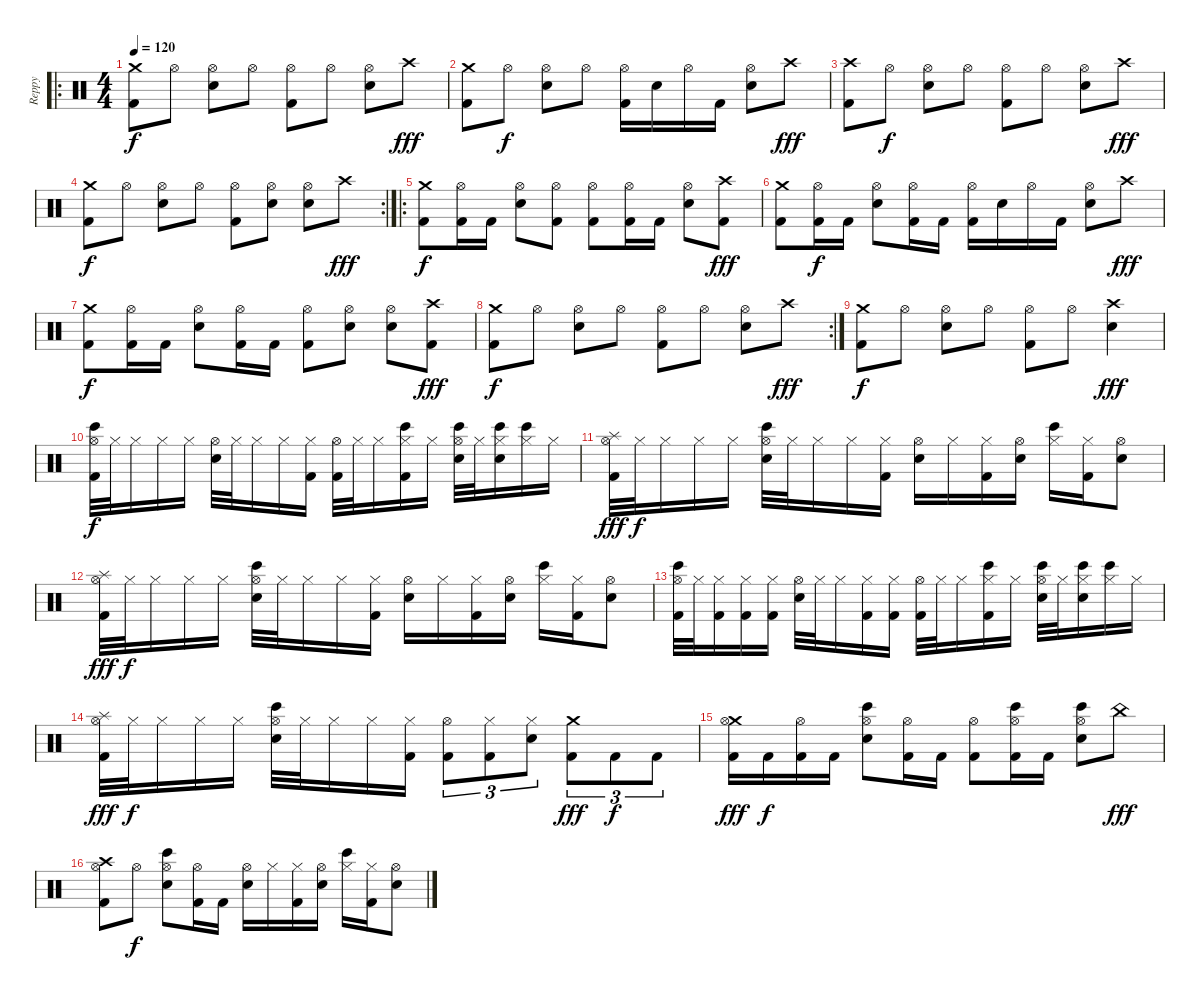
\track ("Reppy" "Reppy") {instrument percussion}
\staff {score}
\articulation defaults
\ro
\ts (4 4)
\tempo 120
\clef neutral
\ks c
("Crash medium (hit)" "Kick (hit) 2").8{dy f} "Hi-Hat (open)".8 ("Hi-Hat (open)" "Electric Snare (hit)").8 "Hi-Hat (open)".8 ("Hi-Hat (open)" "Kick (hit) 2").8 "Hi-Hat (open)".8 ("Hi-Hat (open)" "Electric Snare (hit)").8 "Crash high (hit)".8{dy fff} |
("Crash medium (hit)" "Kick (hit) 2").8 "Hi-Hat (open)".8{dy f} ("Hi-Hat (open)" "Electric Snare (hit)").8 "Hi-Hat (open)".8 ("Hi-Hat (open)" "Kick (hit) 2").16 "Electric Snare (hit)".16 "Hi-Hat (open)".16 "Kick (hit) 2".16 ("Hi-Hat (open)" "Electric Snare (hit)").8 "Crash high (hit)".8{dy fff} |
("Crash high (hit)" "Kick (hit) 2").8 "Hi-Hat (open)".8{dy f} ("Hi-Hat (open)" "Electric Snare (hit)").8 "Hi-Hat (open)".8 ("Hi-Hat (open)" "Kick (hit) 2").8 "Hi-Hat (open)".8 ("Hi-Hat (open)" "Electric Snare (hit)").8 "Crash high (hit)".8{dy fff} |
\rc 2
("Crash medium (hit)" "Kick (hit) 2").8{dy f} "Hi-Hat (open)".8 ("Hi-Hat (open)" "Electric Snare (hit)").8 "Hi-Hat (open)".8 ("Hi-Hat (open)" "Kick (hit) 2").8 ("Hi-Hat (open)" "Electric Snare (hit)").8 ("Hi-Hat (open)" "Electric Snare (hit)").8 "Crash high (hit)".8{dy fff} |
\ro
("Crash medium (hit)" "Kick (hit) 2").8{dy f} ("Hi-Hat (open)" "Kick (hit) 2").16 "Kick (hit) 2".16 ("Hi-Hat (open)" "Electric Snare (hit)").8 ("Hi-Hat (open)" "Kick (hit) 2").8 ("Hi-Hat (open)" "Kick (hit) 2").8 ("Hi-Hat (open)" "Kick (hit) 2").16 "Kick (hit) 2".16 ("Hi-Hat (open)" "Electric Snare (hit)").8 ("Crash high (hit)" "Kick (hit) 2").8{dy fff} |
("Crash medium (hit)" "Kick (hit) 2").8 ("Hi-Hat (open)" "Kick (hit) 2").16{dy f} "Kick (hit) 2".16 ("Hi-Hat (open)" "Electric Snare (hit)").8 ("Hi-Hat (open)" "Kick (hit) 2").16 "Kick (hit) 2".16 ("Hi-Hat (open)" "Kick (hit) 2").16 "Electric Snare (hit)".16 "Hi-Hat (open)".16 "Kick (hit) 2".16 ("Hi-Hat (open)" "Electric Snare (hit)").8 "Crash high (hit)".8{dy fff} |
("Crash medium (hit)" "Kick (hit) 2").8{dy f} ("Hi-Hat (open)" "Kick (hit) 2").16 "Kick (hit) 2".16 ("Hi-Hat (open)" "Electric Snare (hit)").8 ("Hi-Hat (open)" "Kick (hit) 2").16 "Kick (hit) 2".16 ("Hi-Hat (open)" "Kick (hit) 2").8 ("Hi-Hat (open)" "Electric Snare (hit)").8 ("Hi-Hat (open)" "Electric Snare (hit)").8 ("Crash high (hit)" "Kick (hit) 2").8{dy fff} |
\rc 2
("Crash medium (hit)" "Kick (hit) 2").8{dy f} "Hi-Hat (open)".8 ("Hi-Hat (open)" "Electric Snare (hit)").8 "Hi-Hat (open)".8 ("Hi-Hat (open)" "Kick (hit) 2").8 "Hi-Hat (open)".8 ("Hi-Hat (open)" "Electric Snare (hit)").8 "Crash high (hit)".8{dy fff} |
("Crash medium (hit)" "Kick (hit) 2").8{dy f} "Hi-Hat (open)".8 ("Hi-Hat (open)" "Electric Snare (hit)").8 "Hi-Hat (open)".8 ("Hi-Hat (open)" "Kick (hit) 2").8 "Hi-Hat (open)".8 ("Crash high (hit)" "Electric Snare (hit)").4{dy fff} |
("Bongo High (hit)" "Hi-Hat (open)" "Kick (hit) 2").32{dy f} "Hi-Hat (closed)".32 "Hi-Hat (closed)".16 "Hi-Hat (closed)".16 "Hi-Hat (closed)".16 ("Hi-Hat (open)" "Electric Snare (hit)").32 "Hi-Hat (closed)".32 "Hi-Hat (closed)".16 "Hi-Hat (closed)".16 ("Hi-Hat (closed)" "Kick (hit) 2").16 ("Hi-Hat (open)" "Kick (hit) 2").32 "Hi-Hat (closed)".32 "Hi-Hat (closed)".16 ("Bongo High (hit)" "Hi-Hat (closed)" "Kick (hit) 2").16 "Hi-Hat (closed)".16 ("Bongo High (hit)" "Hi-Hat (open)" "Electric Snare (hit)").32 "Hi-Hat (closed)".32 ("Bongo High (hit)" "Hi-Hat (closed)" "Electric Snare (hit)").16 ("Bongo High (hit)" "Hi-Hat (closed)").16 "Hi-Hat (closed)".16 |
("Splash (hit)" "Hi-Hat (open)" "Kick (hit) 2").32{dy fff} "Hi-Hat (closed)".32{dy f} "Hi-Hat (closed)".16 "Hi-Hat (closed)".16 "Hi-Hat (closed)".16 ("Bongo High (hit)" "Hi-Hat (open)" "Electric Snare (hit)").32 "Hi-Hat (closed)".32 "Hi-Hat (closed)".16 "Hi-Hat (closed)".16 ("Hi-Hat (closed)" "Kick (hit) 2").16 ("Hi-Hat (open)" "Electric Snare (hit)").16 "Hi-Hat (closed)".16 ("Hi-Hat (closed)" "Kick (hit) 2").16 ("Hi-Hat (open)" "Electric Snare (hit)").16 ("Bongo High (hit)" "Hi-Hat (closed)").16 ("Hi-Hat (closed)" "Kick (hit) 2").16 ("Hi-Hat (open)" "Electric Snare (hit)").8 |
("Splash (hit)" "Hi-Hat (open)" "Kick (hit) 2").32{dy fff} "Hi-Hat (closed)".32{dy f} "Hi-Hat (closed)".16 "Hi-Hat (closed)".16 "Hi-Hat (closed)".16 ("Bongo High (hit)" "Hi-Hat (open)" "Electric Snare (hit)").32 "Hi-Hat (closed)".32 "Hi-Hat (closed)".16 "Hi-Hat (closed)".16 ("Hi-Hat (closed)" "Kick (hit) 2").16 ("Hi-Hat (open)" "Electric Snare (hit)").16 "Hi-Hat (closed)".16 ("Hi-Hat (closed)" "Kick (hit) 2").16 ("Hi-Hat (open)" "Electric Snare (hit)").16 ("Bongo High (hit)" "Hi-Hat (closed)").16 ("Hi-Hat (closed)" "Kick (hit) 2").16 ("Hi-Hat (open)" "Electric Snare (hit)").8 |
("Bongo High (hit)" "Hi-Hat (open)" "Kick (hit) 2").32 "Hi-Hat (closed)".32 ("Hi-Hat (closed)" "Kick (hit) 2").16 ("Hi-Hat (closed)" "Kick (hit) 2").16 ("Hi-Hat (closed)" "Kick (hit) 2").16 ("Hi-Hat (open)" "Electric Snare (hit)").32 "Hi-Hat (closed)".32 "Hi-Hat (closed)".16 ("Hi-Hat (closed)" "Kick (hit) 2").16 ("Hi-Hat (closed)" "Kick (hit) 2").16 ("Hi-Hat (open)" "Kick (hit) 2").32 "Hi-Hat (closed)".32 "Hi-Hat (closed)".16 ("Bongo High (hit)" "Hi-Hat (closed)" "Kick (hit) 2").16 "Hi-Hat (closed)".16 ("Bongo High (hit)" "Hi-Hat (open)" "Electric Snare (hit)").32 "Hi-Hat (closed)".32 ("Bongo High (hit)" "Hi-Hat (closed)" "Electric Snare (hit)").16 ("Bongo High (hit)" "Hi-Hat (closed)").16 "Hi-Hat (closed)".16 |
("Splash (hit)" "Hi-Hat (open)" "Kick (hit) 2").32{dy fff} "Hi-Hat (closed)".32{dy f} "Hi-Hat (closed)".16 "Hi-Hat (closed)".16 "Hi-Hat (closed)".16 ("Bongo High (hit)" "Hi-Hat (open)" "Electric Snare (hit)").32 "Hi-Hat (closed)".32 "Hi-Hat (closed)".16 "Hi-Hat (closed)".16 ("Hi-Hat (closed)" "Kick (hit) 2").16 ("Hi-Hat (open)" "Kick (hit) 2").8{tu (3 2)} ("Hi-Hat (closed)" "Kick (hit) 2").8{tu (3 2)} ("Hi-Hat (closed)" "Electric Snare (hit)").8{tu (3 2)} ("Crash medium (hit)" "Kick (hit) 2").8{tu (3 2) dy fff} "Kick (hit) 2".8{tu (3 2) dy f} "Kick (hit) 2".8{tu (3 2)} |
("Crash medium (hit)" "Hi-Hat (open)" "Kick (hit) 2").16{dy fff} "Kick (hit) 2".16{dy f} ("Hi-Hat (open)" "Kick (hit) 2").16 "Kick (hit) 2".16 ("Bongo High (hit)" "Hi-Hat (open)" "Electric Snare (hit)").8 ("Hi-Hat (open)" "Kick (hit) 2").16 "Kick (hit) 2".16 ("Hi-Hat (open)" "Kick (hit) 2").8 ("Bongo High (hit)" "Hi-Hat (open)" "Kick (hit) 2").16 "Kick (hit) 2".16 ("Bongo High (hit)" "Hi-Hat (open)" "Electric Snare (hit)").8 "China (hit)".8{dy fff} |
("Crash high (hit)" "Hi-Hat (open)" "Kick (hit) 2").8 "Hi-Hat (open)".8{dy f} ("Bongo High (hit)" "Hi-Hat (open)" "Electric Snare (hit)").8 ("Hi-Hat (open)" "Kick (hit) 2").16 "Kick (hit) 2".16 ("Hi-Hat (open)" "Electric Snare (hit)").16 "Hi-Hat (closed)".16 ("Hi-Hat (closed)" "Kick (hit) 2").16 ("Hi-Hat (open)" "Electric Snare (hit)").16 ("Bongo High (hit)" "Hi-Hat (closed)").16 ("Hi-Hat (closed)" "Kick (hit) 2").16 ("Hi-Hat (open)" "Electric Snare (hit)").8
